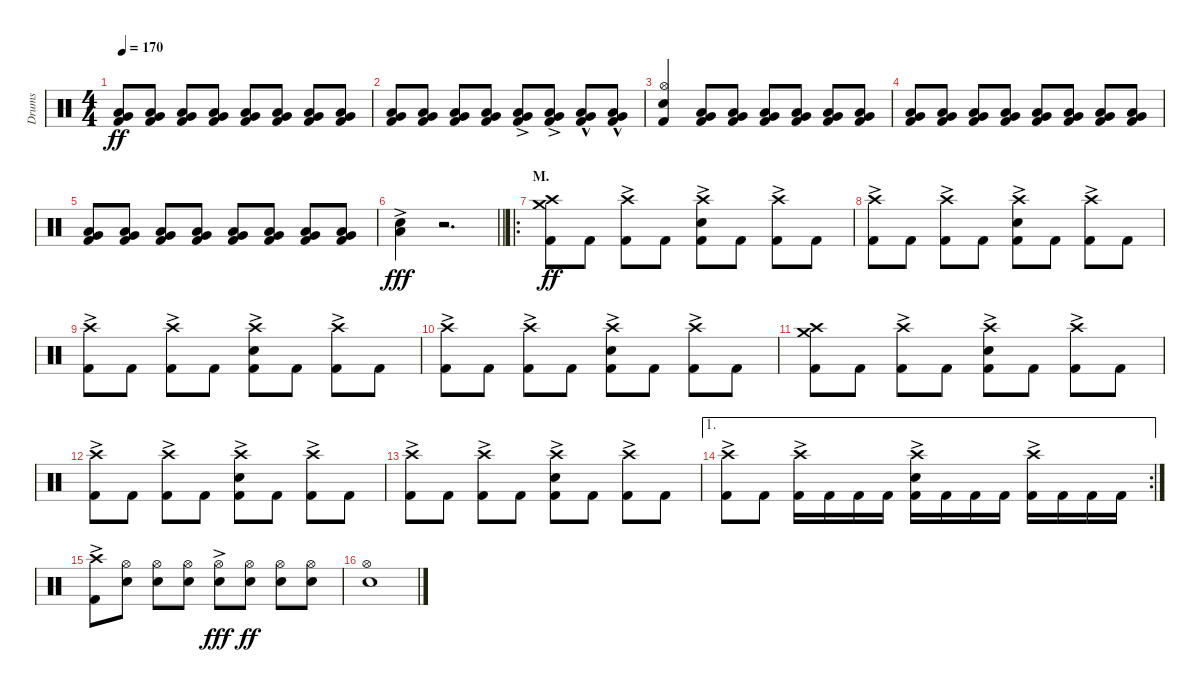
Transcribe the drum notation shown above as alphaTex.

\track ("Drums" "Drums") {instrument percussion}
\staff {score}
\articulation defaults
\ts (4 4)
\tempo 170
\clef neutral
\ks c
("Low Tom (hit)" "Very Low Tom (hit)" "Kick (hit) 2").8{dy ff} ("Low Tom (hit)" "Very Low Tom (hit)" "Kick (hit) 2").8 ("Low Tom (hit)" "Very Low Tom (hit)" "Kick (hit) 2").8 ("Low Tom (hit)" "Very Low Tom (hit)" "Kick (hit) 2").8 ("Low Tom (hit)" "Very Low Tom (hit)" "Kick (hit) 2").8 ("Low Tom (hit)" "Very Low Tom (hit)" "Kick (hit) 2").8 ("Low Tom (hit)" "Very Low Tom (hit)" "Kick (hit) 2").8 ("Low Tom (hit)" "Very Low Tom (hit)" "Kick (hit) 2").8 |
("Low Tom (hit)" "Very Low Tom (hit)" "Kick (hit) 2").8 ("Low Tom (hit)" "Very Low Tom (hit)" "Kick (hit) 2").8 ("Low Tom (hit)" "Very Low Tom (hit)" "Kick (hit) 2").8 ("Low Tom (hit)" "Very Low Tom (hit)" "Kick (hit) 2").8 ("Low Tom (hit)"{ac} "Very Low Tom (hit)"{ac} "Kick (hit) 2").8 ("Low Tom (hit)"{ac} "Very Low Tom (hit)"{ac} "Kick (hit) 2").8 ("Low Tom (hit)"{hac} "Very Low Tom (hit)"{hac} "Kick (hit) 2").8 ("Low Tom (hit)"{hac} "Very Low Tom (hit)"{hac} "Kick (hit) 2").8 |
("Hi-Hat (open)" "Electric Snare (hit)" "Kick (hit) 2").4 ("Low Tom (hit)" "Very Low Tom (hit)" "Kick (hit) 2").8 ("Low Tom (hit)" "Very Low Tom (hit)" "Kick (hit) 2").8 ("Low Tom (hit)" "Very Low Tom (hit)" "Kick (hit) 2").8 ("Low Tom (hit)" "Very Low Tom (hit)" "Kick (hit) 2").8 ("Low Tom (hit)" "Very Low Tom (hit)" "Kick (hit) 2").8 ("Low Tom (hit)" "Very Low Tom (hit)" "Kick (hit) 2").8 |
("Low Tom (hit)" "Very Low Tom (hit)" "Kick (hit) 2").8 ("Low Tom (hit)" "Very Low Tom (hit)" "Kick (hit) 2").8 ("Low Tom (hit)" "Very Low Tom (hit)" "Kick (hit) 2").8 ("Low Tom (hit)" "Very Low Tom (hit)" "Kick (hit) 2").8 ("Low Tom (hit)" "Very Low Tom (hit)" "Kick (hit) 2").8 ("Low Tom (hit)" "Very Low Tom (hit)" "Kick (hit) 2").8 ("Low Tom (hit)" "Very Low Tom (hit)" "Kick (hit) 2").8 ("Low Tom (hit)" "Very Low Tom (hit)" "Kick (hit) 2").8 |
("Low Tom (hit)" "Very Low Tom (hit)" "Kick (hit) 2").8 ("Low Tom (hit)" "Very Low Tom (hit)" "Kick (hit) 2").8 ("Low Tom (hit)" "Very Low Tom (hit)" "Kick (hit) 2").8 ("Low Tom (hit)" "Very Low Tom (hit)" "Kick (hit) 2").8 ("Low Tom (hit)" "Very Low Tom (hit)" "Kick (hit) 2").8 ("Low Tom (hit)" "Very Low Tom (hit)" "Kick (hit) 2").8 ("Low Tom (hit)" "Very Low Tom (hit)" "Kick (hit) 2").8 ("Low Tom (hit)" "Very Low Tom (hit)" "Kick (hit) 2").8 |
\barLineRight lightlight
("Low Tom (hit)"{ac} "Electric Snare (hit)"{ac}).4{bu 60 dy fff} r.2{d} |
\ro
\section ("" "M.")
("Crash medium (hit)" "Crash high (hit)" "Kick (hit) 2").8{dy ff volume 15} "Kick (hit) 2".8 ("Crash high (hit)"{ac} "Kick (hit) 2").8 "Kick (hit) 2".8 ("Crash high (hit)"{ac} "Electric Snare (hit)" "Kick (hit) 2").8 "Kick (hit) 2".8 ("Crash high (hit)"{ac} "Kick (hit) 2").8 "Kick (hit) 2".8 |
("Crash high (hit)"{ac} "Kick (hit) 2").8 "Kick (hit) 2".8 ("Crash high (hit)"{ac} "Kick (hit) 2").8 "Kick (hit) 2".8 ("Crash high (hit)"{ac} "Electric Snare (hit)" "Kick (hit) 2").8 "Kick (hit) 2".8 ("Crash high (hit)"{ac} "Kick (hit) 2").8 "Kick (hit) 2".8 |
("Crash high (hit)"{ac} "Kick (hit) 2").8 "Kick (hit) 2".8 ("Crash high (hit)"{ac} "Kick (hit) 2").8 "Kick (hit) 2".8 ("Crash high (hit)"{ac} "Electric Snare (hit)" "Kick (hit) 2").8 "Kick (hit) 2".8 ("Crash high (hit)"{ac} "Kick (hit) 2").8 "Kick (hit) 2".8 |
("Crash high (hit)"{ac} "Kick (hit) 2").8 "Kick (hit) 2".8 ("Crash high (hit)"{ac} "Kick (hit) 2").8 "Kick (hit) 2".8 ("Crash high (hit)"{ac} "Electric Snare (hit)" "Kick (hit) 2").8 "Kick (hit) 2".8 ("Crash high (hit)"{ac} "Kick (hit) 2").8 "Kick (hit) 2".8 |
("Crash medium (hit)" "Crash high (hit)" "Kick (hit) 2").8 "Kick (hit) 2".8 ("Crash high (hit)"{ac} "Kick (hit) 2").8 "Kick (hit) 2".8 ("Crash high (hit)"{ac} "Electric Snare (hit)" "Kick (hit) 2").8 "Kick (hit) 2".8 ("Crash high (hit)"{ac} "Kick (hit) 2").8 "Kick (hit) 2".8 |
("Crash high (hit)"{ac} "Kick (hit) 2").8 "Kick (hit) 2".8 ("Crash high (hit)"{ac} "Kick (hit) 2").8 "Kick (hit) 2".8 ("Crash high (hit)"{ac} "Electric Snare (hit)" "Kick (hit) 2").8 "Kick (hit) 2".8 ("Crash high (hit)"{ac} "Kick (hit) 2").8 "Kick (hit) 2".8 |
("Crash high (hit)"{ac} "Kick (hit) 2").8 "Kick (hit) 2".8 ("Crash high (hit)"{ac} "Kick (hit) 2").8 "Kick (hit) 2".8 ("Crash high (hit)"{ac} "Electric Snare (hit)" "Kick (hit) 2").8 "Kick (hit) 2".8 ("Crash high (hit)"{ac} "Kick (hit) 2").8 "Kick (hit) 2".8 |
\ae 1
\rc 2
("Crash high (hit)"{ac} "Kick (hit) 2").8 "Kick (hit) 2".8 ("Crash high (hit)"{ac} "Kick (hit) 2").16 "Kick (hit) 2".16 "Kick (hit) 2".16 "Kick (hit) 2".16 ("Crash high (hit)"{ac} "Electric Snare (hit)" "Kick (hit) 2").16 "Kick (hit) 2".16 "Kick (hit) 2".16 "Kick (hit) 2".16 ("Crash high (hit)"{ac} "Kick (hit) 2").16 "Kick (hit) 2".16 "Kick (hit) 2".16 "Kick (hit) 2".16 |
("Crash high (hit)"{ac} "Kick (hit) 2").8 ("Hi-Hat (open)" "Electric Snare (hit)").8 ("Hi-Hat (open)" "Electric Snare (hit)").8 ("Hi-Hat (open)" "Electric Snare (hit)").8 ("Hi-Hat (open)" "Electric Snare (hit)"{ac}).8{dy fff} ("Hi-Hat (open)" "Electric Snare (hit)").8{dy ff} ("Hi-Hat (open)" "Electric Snare (hit)").8 ("Hi-Hat (open)" "Electric Snare (hit)").8 |
("Hi-Hat (open)" "Electric Snare (hit)").1
